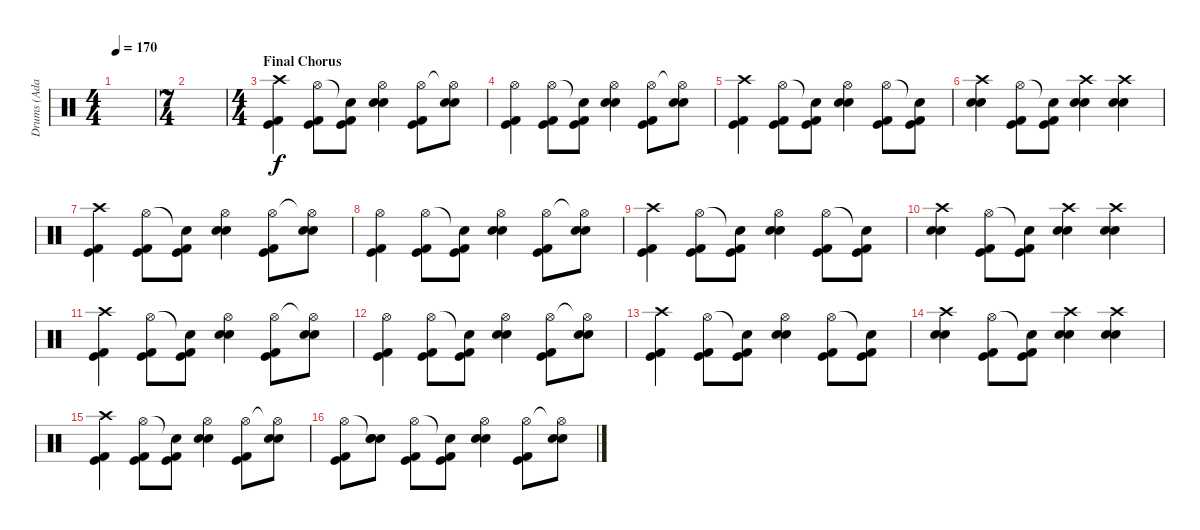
\track ("Drums (Adam)" "Drums (Ada") {instrument percussion}
\staff {score}
\articulation defaults
\ts (4 4)
\tempo 170
\clef neutral
\ks c
|
\ts (7 4)
|
\ts (4 4)
\section ("" "Final Chorus")
("Crash high (hit)" "Kick (hit)" "Kick (hit) 2").4 ("Hi-Hat (open)" "Kick (hit)" "Kick (hit) 2").8 ("Snare (hit)"{t} "Kick (hit)" "Kick (hit) 2").8 ("Hi-Hat (open)" "Snare (hit) 2" "Electric Snare (hit)").4 ("Hi-Hat (open)" "Kick (hit)" "Kick (hit) 2").8 ("Hi-Hat (open)"{t} "Snare (hit) 2" "Electric Snare (hit)").8 |
("Hi-Hat (open)" "Kick (hit)" "Kick (hit) 2").4 ("Hi-Hat (open)" "Kick (hit)" "Kick (hit) 2").8 ("Snare (hit)"{t} "Kick (hit)" "Kick (hit) 2").8 ("Hi-Hat (open)" "Snare (hit) 2" "Electric Snare (hit)").4 ("Hi-Hat (open)" "Kick (hit)" "Kick (hit) 2").8 ("Hi-Hat (open)"{t} "Snare (hit) 2" "Electric Snare (hit)").8 |
("Crash high (hit)" "Kick (hit)" "Kick (hit) 2").4 ("Hi-Hat (open)" "Kick (hit)" "Kick (hit) 2").8 ("Snare (hit)"{t} "Kick (hit)" "Kick (hit) 2").8 ("Hi-Hat (open)" "Snare (hit) 2" "Electric Snare (hit)").4 ("Hi-Hat (open)" "Kick (hit)" "Kick (hit) 2").8 ("Snare (hit)"{t} "Kick (hit)" "Kick (hit) 2").8 |
("Crash high (hit)" "Snare (hit) 2" "Electric Snare (hit)").4 ("Hi-Hat (open)" "Kick (hit)" "Kick (hit) 2").8 ("Snare (hit)"{t} "Kick (hit)" "Kick (hit) 2").8 ("Crash high (hit)" "Snare (hit) 2" "Electric Snare (hit)").4 ("Crash high (hit)" "Snare (hit) 2" "Electric Snare (hit)").4 |
("Crash high (hit)" "Kick (hit)" "Kick (hit) 2").4 ("Hi-Hat (open)" "Kick (hit)" "Kick (hit) 2").8 ("Snare (hit)"{t} "Kick (hit)" "Kick (hit) 2").8 ("Hi-Hat (open)" "Snare (hit) 2" "Electric Snare (hit)").4 ("Hi-Hat (open)" "Kick (hit)" "Kick (hit) 2").8 ("Hi-Hat (open)"{t} "Snare (hit) 2" "Electric Snare (hit)").8 |
("Hi-Hat (open)" "Kick (hit)" "Kick (hit) 2").4 ("Hi-Hat (open)" "Kick (hit)" "Kick (hit) 2").8 ("Snare (hit)"{t} "Kick (hit)" "Kick (hit) 2").8 ("Hi-Hat (open)" "Snare (hit) 2" "Electric Snare (hit)").4 ("Hi-Hat (open)" "Kick (hit)" "Kick (hit) 2").8 ("Hi-Hat (open)"{t} "Snare (hit) 2" "Electric Snare (hit)").8 |
("Crash high (hit)" "Kick (hit)" "Kick (hit) 2").4 ("Hi-Hat (open)" "Kick (hit)" "Kick (hit) 2").8 ("Snare (hit)"{t} "Kick (hit)" "Kick (hit) 2").8 ("Hi-Hat (open)" "Snare (hit) 2" "Electric Snare (hit)").4 ("Hi-Hat (open)" "Kick (hit)" "Kick (hit) 2").8 ("Snare (hit)"{t} "Kick (hit)" "Kick (hit) 2").8 |
("Crash high (hit)" "Snare (hit) 2" "Electric Snare (hit)").4 ("Hi-Hat (open)" "Kick (hit)" "Kick (hit) 2").8 ("Snare (hit)"{t} "Kick (hit)" "Kick (hit) 2").8 ("Crash high (hit)" "Snare (hit) 2" "Electric Snare (hit)").4 ("Crash high (hit)" "Snare (hit) 2" "Electric Snare (hit)").4 |
("Crash high (hit)" "Kick (hit)" "Kick (hit) 2").4 ("Hi-Hat (open)" "Kick (hit)" "Kick (hit) 2").8 ("Snare (hit)"{t} "Kick (hit)" "Kick (hit) 2").8 ("Hi-Hat (open)" "Snare (hit) 2" "Electric Snare (hit)").4 ("Hi-Hat (open)" "Kick (hit)" "Kick (hit) 2").8 ("Hi-Hat (open)"{t} "Snare (hit) 2" "Electric Snare (hit)").8 |
("Hi-Hat (open)" "Kick (hit)" "Kick (hit) 2").4 ("Hi-Hat (open)" "Kick (hit)" "Kick (hit) 2").8 ("Snare (hit)"{t} "Kick (hit)" "Kick (hit) 2").8 ("Hi-Hat (open)" "Snare (hit) 2" "Electric Snare (hit)").4 ("Hi-Hat (open)" "Kick (hit)" "Kick (hit) 2").8 ("Hi-Hat (open)"{t} "Snare (hit) 2" "Electric Snare (hit)").8 |
("Crash high (hit)" "Kick (hit)" "Kick (hit) 2").4 ("Hi-Hat (open)" "Kick (hit)" "Kick (hit) 2").8 ("Snare (hit)"{t} "Kick (hit)" "Kick (hit) 2").8 ("Hi-Hat (open)" "Snare (hit) 2" "Electric Snare (hit)").4 ("Hi-Hat (open)" "Kick (hit)" "Kick (hit) 2").8 ("Snare (hit)"{t} "Kick (hit)" "Kick (hit) 2").8 |
("Crash high (hit)" "Snare (hit) 2" "Electric Snare (hit)").4 ("Hi-Hat (open)" "Kick (hit)" "Kick (hit) 2").8 ("Snare (hit)"{t} "Kick (hit)" "Kick (hit) 2").8 ("Crash high (hit)" "Snare (hit) 2" "Electric Snare (hit)").4 ("Crash high (hit)" "Snare (hit) 2" "Electric Snare (hit)").4 |
("Crash high (hit)" "Kick (hit)" "Kick (hit) 2").4 ("Hi-Hat (open)" "Kick (hit)" "Kick (hit) 2").8 ("Snare (hit)"{t} "Kick (hit)" "Kick (hit) 2").8 ("Hi-Hat (open)" "Snare (hit) 2" "Electric Snare (hit)").4 ("Hi-Hat (open)" "Kick (hit)" "Kick (hit) 2").8 ("Hi-Hat (open)"{t} "Snare (hit) 2" "Electric Snare (hit)").8 |
("Hi-Hat (open)" "Kick (hit)" "Kick (hit) 2").8 ("Snare (hit)"{t} "Snare (hit) 2" "Electric Snare (hit)").8 ("Hi-Hat (open)" "Kick (hit)" "Kick (hit) 2").8 ("Snare (hit)"{t} "Kick (hit)" "Kick (hit) 2").8 ("Hi-Hat (open)" "Snare (hit) 2" "Electric Snare (hit)").4 ("Hi-Hat (open)" "Kick (hit)" "Kick (hit) 2").8 ("Hi-Hat (open)"{t} "Snare (hit) 2" "Electric Snare (hit)").8
